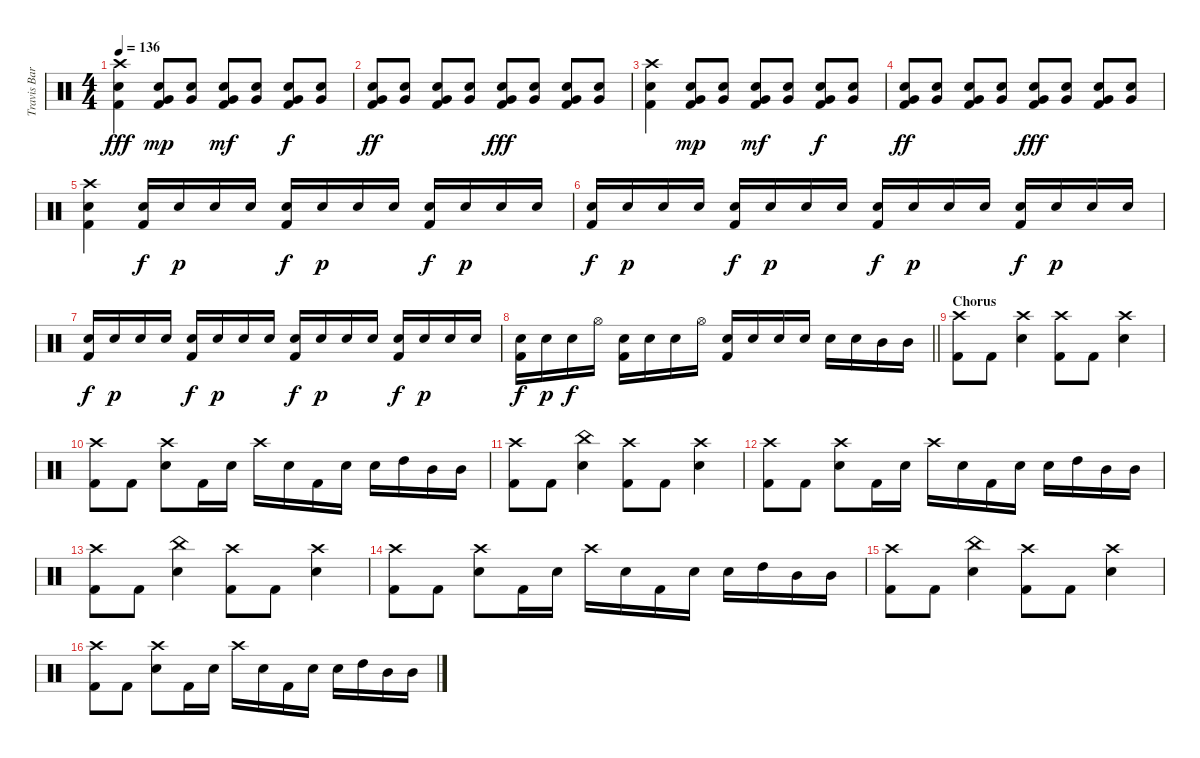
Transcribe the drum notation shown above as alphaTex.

\track ("Travis Barker - Drums" "Travis Bar") {instrument percussion}
\staff {score}
\articulation defaults
\ts (4 4)
\tempo 136
\clef neutral
\ks c
("Crash high (hit)" "Kick (hit) 2" "Snare (hit) 2").4{dy fff} ("Snare (hit) 2" "Very Low Tom (hit)" "Kick (hit) 2").8{dy mp} ("Snare (hit) 2" "Very Low Tom (hit)").8 ("Snare (hit) 2" "Very Low Tom (hit)" "Kick (hit) 2").8{dy mf} ("Snare (hit) 2" "Very Low Tom (hit)").8 ("Snare (hit) 2" "Very Low Tom (hit)" "Kick (hit) 2").8{dy f} ("Snare (hit) 2" "Very Low Tom (hit)").8 |
("Snare (hit) 2" "Very Low Tom (hit)" "Kick (hit) 2").8{dy ff} ("Snare (hit) 2" "Very Low Tom (hit)").8 ("Snare (hit) 2" "Very Low Tom (hit)" "Kick (hit) 2").8 ("Snare (hit) 2" "Very Low Tom (hit)").8 ("Snare (hit) 2" "Very Low Tom (hit)" "Kick (hit) 2").8{dy fff} ("Snare (hit) 2" "Very Low Tom (hit)").8 ("Snare (hit) 2" "Very Low Tom (hit)" "Kick (hit) 2").8 ("Snare (hit) 2" "Very Low Tom (hit)").8 |
("Crash high (hit)" "Kick (hit) 2" "Snare (hit) 2").4 ("Snare (hit) 2" "Very Low Tom (hit)" "Kick (hit) 2").8{dy mp} ("Snare (hit) 2" "Very Low Tom (hit)").8 ("Snare (hit) 2" "Very Low Tom (hit)" "Kick (hit) 2").8{dy mf} ("Snare (hit) 2" "Very Low Tom (hit)").8 ("Snare (hit) 2" "Very Low Tom (hit)" "Kick (hit) 2").8{dy f} ("Snare (hit) 2" "Very Low Tom (hit)").8 |
("Snare (hit) 2" "Very Low Tom (hit)" "Kick (hit) 2").8{dy ff} ("Snare (hit) 2" "Very Low Tom (hit)").8 ("Snare (hit) 2" "Very Low Tom (hit)" "Kick (hit) 2").8 ("Snare (hit) 2" "Very Low Tom (hit)").8 ("Snare (hit) 2" "Very Low Tom (hit)" "Kick (hit) 2").8{dy fff} ("Snare (hit) 2" "Very Low Tom (hit)").8 ("Snare (hit) 2" "Very Low Tom (hit)" "Kick (hit) 2").8 ("Snare (hit) 2" "Very Low Tom (hit)").8 |
("Crash high (hit)" "Kick (hit) 2" "Snare (hit) 2").4 ("Snare (hit) 2" "Kick (hit) 2").16{dy f} "Snare (hit) 2".16{dy p} "Snare (hit) 2".16 "Snare (hit) 2".16 ("Snare (hit) 2" "Kick (hit) 2").16{dy f} "Snare (hit) 2".16{dy p} "Snare (hit) 2".16 "Snare (hit) 2".16 ("Snare (hit) 2" "Kick (hit) 2").16{dy f} "Snare (hit) 2".16{dy p} "Snare (hit) 2".16 "Snare (hit) 2".16 |
("Snare (hit) 2" "Kick (hit) 2").16{dy f} "Snare (hit) 2".16{dy p} "Snare (hit) 2".16 "Snare (hit) 2".16 ("Snare (hit) 2" "Kick (hit) 2").16{dy f} "Snare (hit) 2".16{dy p} "Snare (hit) 2".16 "Snare (hit) 2".16 ("Snare (hit) 2" "Kick (hit) 2").16{dy f} "Snare (hit) 2".16{dy p} "Snare (hit) 2".16 "Snare (hit) 2".16 ("Snare (hit) 2" "Kick (hit) 2").16{dy f} "Snare (hit) 2".16{dy p} "Snare (hit) 2".16 "Snare (hit) 2".16 |
("Snare (hit) 2" "Kick (hit) 2").16{dy f} "Snare (hit) 2".16{dy p} "Snare (hit) 2".16 "Snare (hit) 2".16 ("Snare (hit) 2" "Kick (hit) 2").16{dy f} "Snare (hit) 2".16{dy p} "Snare (hit) 2".16 "Snare (hit) 2".16 ("Snare (hit) 2" "Kick (hit) 2").16{dy f} "Snare (hit) 2".16{dy p} "Snare (hit) 2".16 "Snare (hit) 2".16 ("Snare (hit) 2" "Kick (hit) 2").16{dy f} "Snare (hit) 2".16{dy p} "Snare (hit) 2".16 "Snare (hit) 2".16 |
\barLineRight lightlight
("Snare (hit) 2" "Kick (hit) 2").16{dy f} "Snare (hit) 2".16{dy p} "Snare (hit) 2".16{dy f} "Hi-Hat (open)".16 ("Snare (hit) 2" "Kick (hit) 2").16 "Snare (hit) 2".16 "Snare (hit) 2".16 "Hi-Hat (open)".16 ("Snare (hit) 2" "Kick (hit) 2").16 "Snare (hit) 2".16 "Snare (hit) 2".16 "Snare (hit) 2".16 "Snare (hit) 2".16 "Snare (hit) 2".16 "Mid Tom (hit)".16 "Mid Tom (hit)".16 |
\section ("" "Chorus")
("Crash high (hit)" "Kick (hit) 2").8 "Kick (hit) 2".8 ("Crash high (hit)" "Snare (hit) 2").4 ("Crash high (hit)" "Kick (hit) 2").8 "Kick (hit) 2".8 ("Crash high (hit)" "Snare (hit) 2").4 |
("Crash high (hit)" "Kick (hit) 2").8 "Kick (hit) 2".8 ("Crash high (hit)" "Snare (hit) 2").8 "Kick (hit) 2".16 "Snare (hit) 2".16 "Crash high (hit)".16 "Snare (hit) 2".16 "Kick (hit) 2".16 "Snare (hit) 2".16 "Snare (hit) 2".16 "High Tom (hit)".16 "Mid Tom (hit)".16 "Mid Tom (hit)".16 |
("Crash high (hit)" "Kick (hit) 2").8 "Kick (hit) 2".8 ("China (hit)" "Snare (hit) 2").4 ("Crash high (hit)" "Kick (hit) 2").8 "Kick (hit) 2".8 ("Crash high (hit)" "Snare (hit) 2").4 |
("Crash high (hit)" "Kick (hit) 2").8 "Kick (hit) 2".8 ("Crash high (hit)" "Snare (hit) 2").8 "Kick (hit) 2".16 "Snare (hit) 2".16 "Crash high (hit)".16 "Snare (hit) 2".16 "Kick (hit) 2".16 "Snare (hit) 2".16 "Snare (hit) 2".16 "High Tom (hit)".16 "Mid Tom (hit)".16 "Mid Tom (hit)".16 |
("Crash high (hit)" "Kick (hit) 2").8 "Kick (hit) 2".8 ("China (hit)" "Snare (hit) 2").4 ("Crash high (hit)" "Kick (hit) 2").8 "Kick (hit) 2".8 ("Crash high (hit)" "Snare (hit) 2").4 |
("Crash high (hit)" "Kick (hit) 2").8 "Kick (hit) 2".8 ("Crash high (hit)" "Snare (hit) 2").8 "Kick (hit) 2".16 "Snare (hit) 2".16 "Crash high (hit)".16 "Snare (hit) 2".16 "Kick (hit) 2".16 "Snare (hit) 2".16 "Snare (hit) 2".16 "High Tom (hit)".16 "Mid Tom (hit)".16 "Mid Tom (hit)".16 |
("Crash high (hit)" "Kick (hit) 2").8 "Kick (hit) 2".8 ("China (hit)" "Snare (hit) 2").4 ("Crash high (hit)" "Kick (hit) 2").8 "Kick (hit) 2".8 ("Crash high (hit)" "Snare (hit) 2").4 |
("Crash high (hit)" "Kick (hit) 2").8 "Kick (hit) 2".8 ("Crash high (hit)" "Snare (hit) 2").8 "Kick (hit) 2".16 "Snare (hit) 2".16 "Crash high (hit)".16 "Snare (hit) 2".16 "Kick (hit) 2".16 "Snare (hit) 2".16 "Snare (hit) 2".16 "High Tom (hit)".16 "Mid Tom (hit)".16 "Mid Tom (hit)".16
